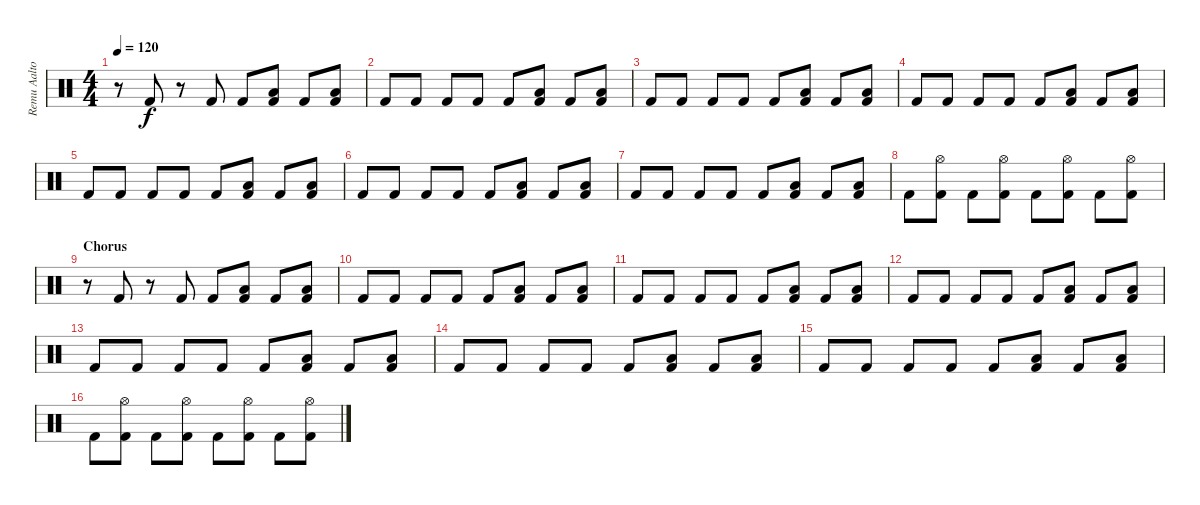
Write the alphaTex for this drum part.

\track ("Remu Aaltonen" "Remu Aalto") {instrument percussion}
\staff {score}
\articulation defaults
\ts (4 4)
\tempo 120
\clef neutral
\ks c
r.8{dy f} "Kick (hit) 2".8 r.8 "Kick (hit) 2".8 "Kick (hit) 2".8 ("Low Tom (hit)" "Kick (hit) 2").8 "Kick (hit) 2".8 ("Low Tom (hit)" "Kick (hit) 2").8 |
"Kick (hit) 2".8 "Kick (hit) 2".8 "Kick (hit) 2".8 "Kick (hit) 2".8 "Kick (hit) 2".8 ("Low Tom (hit)" "Kick (hit) 2").8 "Kick (hit) 2".8 ("Low Tom (hit)" "Kick (hit) 2").8 |
"Kick (hit) 2".8 "Kick (hit) 2".8 "Kick (hit) 2".8 "Kick (hit) 2".8 "Kick (hit) 2".8 ("Low Tom (hit)" "Kick (hit) 2").8 "Kick (hit) 2".8 ("Low Tom (hit)" "Kick (hit) 2").8 |
"Kick (hit) 2".8 "Kick (hit) 2".8 "Kick (hit) 2".8 "Kick (hit) 2".8 "Kick (hit) 2".8 ("Low Tom (hit)" "Kick (hit) 2").8 "Kick (hit) 2".8 ("Low Tom (hit)" "Kick (hit) 2").8 |
"Kick (hit) 2".8 "Kick (hit) 2".8 "Kick (hit) 2".8 "Kick (hit) 2".8 "Kick (hit) 2".8 ("Low Tom (hit)" "Kick (hit) 2").8 "Kick (hit) 2".8 ("Low Tom (hit)" "Kick (hit) 2").8 |
"Kick (hit) 2".8 "Kick (hit) 2".8 "Kick (hit) 2".8 "Kick (hit) 2".8 "Kick (hit) 2".8 ("Low Tom (hit)" "Kick (hit) 2").8 "Kick (hit) 2".8 ("Low Tom (hit)" "Kick (hit) 2").8 |
"Kick (hit) 2".8 "Kick (hit) 2".8 "Kick (hit) 2".8 "Kick (hit) 2".8 "Kick (hit) 2".8 ("Low Tom (hit)" "Kick (hit) 2").8 "Kick (hit) 2".8 ("Low Tom (hit)" "Kick (hit) 2").8 |
"Kick (hit) 2".8 ("Kick (hit) 2" "Hi-Hat (open)").8 "Kick (hit) 2".8 ("Kick (hit) 2" "Hi-Hat (open)").8 "Kick (hit) 2".8 ("Kick (hit) 2" "Hi-Hat (open)").8 "Kick (hit) 2".8 ("Kick (hit) 2" "Hi-Hat (open)").8 |
\section ("" "Chorus")
r.8 "Kick (hit) 2".8 r.8 "Kick (hit) 2".8 "Kick (hit) 2".8 ("Low Tom (hit)" "Kick (hit) 2").8 "Kick (hit) 2".8 ("Low Tom (hit)" "Kick (hit) 2").8 |
"Kick (hit) 2".8 "Kick (hit) 2".8 "Kick (hit) 2".8 "Kick (hit) 2".8 "Kick (hit) 2".8 ("Low Tom (hit)" "Kick (hit) 2").8 "Kick (hit) 2".8 ("Low Tom (hit)" "Kick (hit) 2").8 |
"Kick (hit) 2".8 "Kick (hit) 2".8 "Kick (hit) 2".8 "Kick (hit) 2".8 "Kick (hit) 2".8 ("Low Tom (hit)" "Kick (hit) 2").8 "Kick (hit) 2".8 ("Low Tom (hit)" "Kick (hit) 2").8 |
"Kick (hit) 2".8 "Kick (hit) 2".8 "Kick (hit) 2".8 "Kick (hit) 2".8 "Kick (hit) 2".8 ("Low Tom (hit)" "Kick (hit) 2").8 "Kick (hit) 2".8 ("Low Tom (hit)" "Kick (hit) 2").8 |
"Kick (hit) 2".8 "Kick (hit) 2".8 "Kick (hit) 2".8 "Kick (hit) 2".8 "Kick (hit) 2".8 ("Low Tom (hit)" "Kick (hit) 2").8 "Kick (hit) 2".8 ("Low Tom (hit)" "Kick (hit) 2").8 |
"Kick (hit) 2".8 "Kick (hit) 2".8 "Kick (hit) 2".8 "Kick (hit) 2".8 "Kick (hit) 2".8 ("Low Tom (hit)" "Kick (hit) 2").8 "Kick (hit) 2".8 ("Low Tom (hit)" "Kick (hit) 2").8 |
"Kick (hit) 2".8 "Kick (hit) 2".8 "Kick (hit) 2".8 "Kick (hit) 2".8 "Kick (hit) 2".8 ("Low Tom (hit)" "Kick (hit) 2").8 "Kick (hit) 2".8 ("Low Tom (hit)" "Kick (hit) 2").8 |
"Kick (hit) 2".8 ("Kick (hit) 2" "Hi-Hat (open)").8 "Kick (hit) 2".8 ("Kick (hit) 2" "Hi-Hat (open)").8 "Kick (hit) 2".8 ("Kick (hit) 2" "Hi-Hat (open)").8 "Kick (hit) 2".8 ("Kick (hit) 2" "Hi-Hat (open)").8
